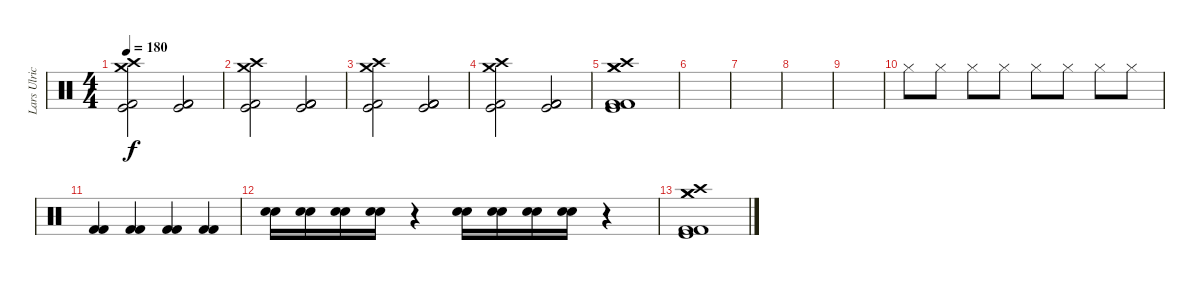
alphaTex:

\track ("Lars Ulrich" "Lars Ulric") {instrument percussion}
\staff {score}
\articulation defaults
\ts (4 4)
\tempo 180
\clef neutral
\ks c
("Crash medium (hit)" "Crash high (hit)" "Kick (hit) 2" "Kick (hit)").2{dy f} ("Kick (hit)" "Kick (hit) 2" "Kick (hit) 2").2 |
("Crash medium (hit)" "Crash high (hit)" "Kick (hit) 2" "Kick (hit)").2 ("Kick (hit)" "Kick (hit) 2" "Kick (hit) 2").2 |
("Crash medium (hit)" "Crash high (hit)" "Kick (hit) 2" "Kick (hit)").2 ("Kick (hit)" "Kick (hit) 2" "Kick (hit) 2").2 |
("Crash medium (hit)" "Crash high (hit)" "Kick (hit) 2" "Kick (hit)").2 ("Kick (hit)" "Kick (hit) 2" "Kick (hit) 2").2 |
("Crash medium (hit)" "Crash medium (hit)" "Crash high (hit)" "Kick (hit)" "Kick (hit) 2" "Kick (hit) 2").1 |
|
|
|
|
"Hi-Hat (closed)".8 "Hi-Hat (closed)".8 "Hi-Hat (closed)".8 "Hi-Hat (closed)".8 "Hi-Hat (closed)".8 "Hi-Hat (closed)".8 "Hi-Hat (closed)".8 "Hi-Hat (closed)".8 |
("Kick (hit) 2" "Kick (hit) 2").4 ("Kick (hit) 2" "Kick (hit) 2").4 ("Kick (hit) 2" "Kick (hit) 2").4 ("Kick (hit) 2" "Kick (hit) 2").4 |
("Electric Snare (hit)" "Electric Snare (hit)").16 ("Electric Snare (hit)" "Electric Snare (hit)").16 ("Electric Snare (hit)" "Electric Snare (hit)").16 ("Electric Snare (hit)" "Electric Snare (hit)").16 r.4 ("Electric Snare (hit)" "Electric Snare (hit)").16 ("Electric Snare (hit)" "Electric Snare (hit)").16 ("Electric Snare (hit)" "Electric Snare (hit)").16 ("Electric Snare (hit)" "Electric Snare (hit)").16 r.4 |
("Crash medium (hit)" "Crash medium (hit)" "Crash high (hit)" "Kick (hit)" "Kick (hit) 2" "Kick (hit) 2").1
